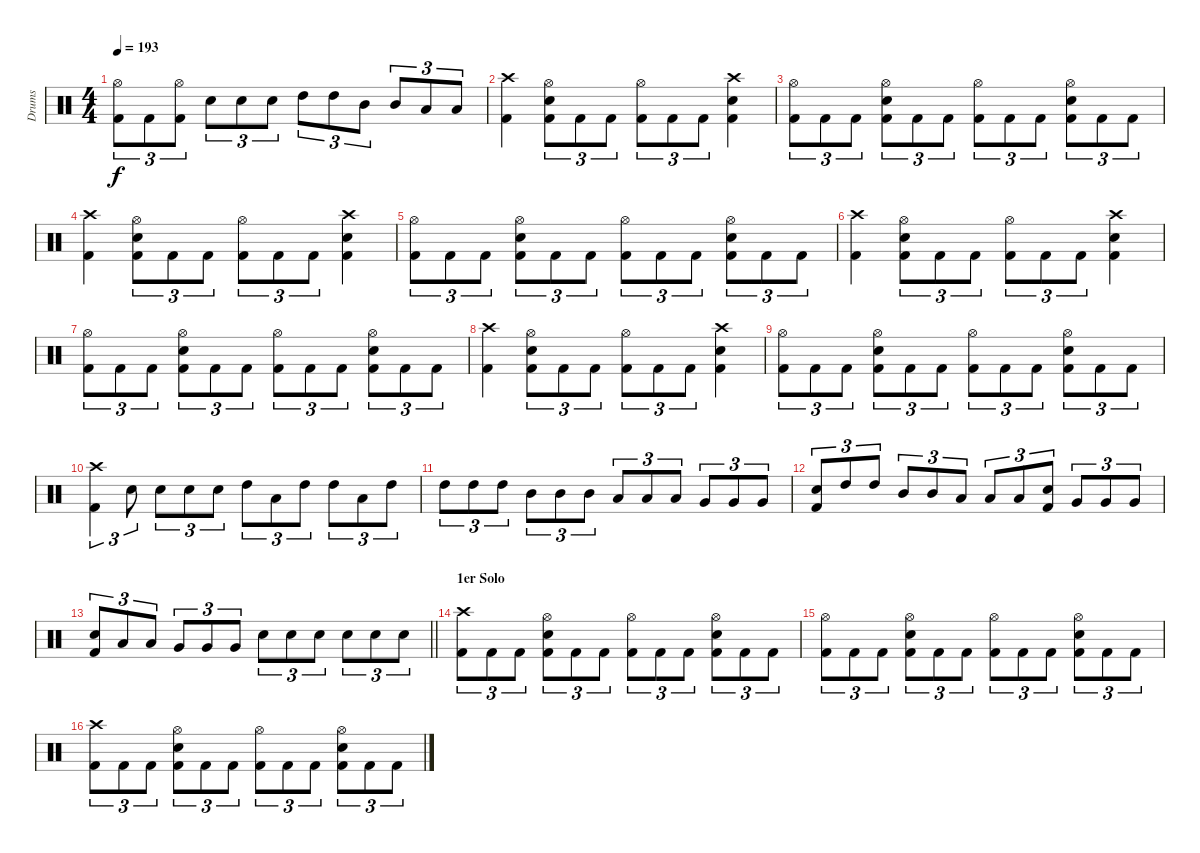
\track ("Drums" "Drums") {instrument percussion}
\staff {score}
\articulation defaults
\ts (4 4)
\tempo 193
\clef neutral
\ks c
("Hi-Hat (open)" "Kick (hit) 2").8{tu (3 2) dy f} "Kick (hit) 2".8{tu (3 2)} ("Hi-Hat (open)" "Kick (hit) 2").8{tu (3 2)} "Electric Snare (hit)".8{tu (3 2)} "Electric Snare (hit)".8{tu (3 2)} "Electric Snare (hit)".8{tu (3 2)} "High Tom (hit)".8{tu (3 2)} "High Tom (hit)".8{tu (3 2)} "Mid Tom (hit)".8{tu (3 2)} "Mid Tom (hit)".8{tu (3 2)} "Low Tom (hit)".8{tu (3 2)} "Low Tom (hit)".8{tu (3 2)} |
("Crash high (hit)" "Kick (hit) 2").4 ("Hi-Hat (open)" "Electric Snare (hit)" "Kick (hit) 2").8{tu (3 2)} "Kick (hit) 2".8{tu (3 2)} "Kick (hit) 2".8{tu (3 2)} ("Hi-Hat (open)" "Kick (hit) 2").8{tu (3 2)} "Kick (hit) 2".8{tu (3 2)} "Kick (hit) 2".8{tu (3 2)} ("Crash high (hit)" "Electric Snare (hit)" "Kick (hit) 2").4 |
("Hi-Hat (open)" "Kick (hit) 2").8{tu (3 2)} "Kick (hit) 2".8{tu (3 2)} "Kick (hit) 2".8{tu (3 2)} ("Hi-Hat (open)" "Electric Snare (hit)" "Kick (hit) 2").8{tu (3 2)} "Kick (hit) 2".8{tu (3 2)} "Kick (hit) 2".8{tu (3 2)} ("Hi-Hat (open)" "Kick (hit) 2").8{tu (3 2)} "Kick (hit) 2".8{tu (3 2)} "Kick (hit) 2".8{tu (3 2)} ("Hi-Hat (open)" "Electric Snare (hit)" "Kick (hit) 2").8{tu (3 2)} "Kick (hit) 2".8{tu (3 2)} "Kick (hit) 2".8{tu (3 2)} |
("Crash high (hit)" "Kick (hit) 2").4 ("Hi-Hat (open)" "Electric Snare (hit)" "Kick (hit) 2").8{tu (3 2)} "Kick (hit) 2".8{tu (3 2)} "Kick (hit) 2".8{tu (3 2)} ("Hi-Hat (open)" "Kick (hit) 2").8{tu (3 2)} "Kick (hit) 2".8{tu (3 2)} "Kick (hit) 2".8{tu (3 2)} ("Crash high (hit)" "Electric Snare (hit)" "Kick (hit) 2").4 |
("Hi-Hat (open)" "Kick (hit) 2").8{tu (3 2)} "Kick (hit) 2".8{tu (3 2)} "Kick (hit) 2".8{tu (3 2)} ("Hi-Hat (open)" "Electric Snare (hit)" "Kick (hit) 2").8{tu (3 2)} "Kick (hit) 2".8{tu (3 2)} "Kick (hit) 2".8{tu (3 2)} ("Hi-Hat (open)" "Kick (hit) 2").8{tu (3 2)} "Kick (hit) 2".8{tu (3 2)} "Kick (hit) 2".8{tu (3 2)} ("Hi-Hat (open)" "Electric Snare (hit)" "Kick (hit) 2").8{tu (3 2)} "Kick (hit) 2".8{tu (3 2)} "Kick (hit) 2".8{tu (3 2)} |
("Crash high (hit)" "Kick (hit) 2").4 ("Hi-Hat (open)" "Electric Snare (hit)" "Kick (hit) 2").8{tu (3 2)} "Kick (hit) 2".8{tu (3 2)} "Kick (hit) 2".8{tu (3 2)} ("Hi-Hat (open)" "Kick (hit) 2").8{tu (3 2)} "Kick (hit) 2".8{tu (3 2)} "Kick (hit) 2".8{tu (3 2)} ("Crash high (hit)" "Electric Snare (hit)" "Kick (hit) 2").4 |
("Hi-Hat (open)" "Kick (hit) 2").8{tu (3 2)} "Kick (hit) 2".8{tu (3 2)} "Kick (hit) 2".8{tu (3 2)} ("Hi-Hat (open)" "Electric Snare (hit)" "Kick (hit) 2").8{tu (3 2)} "Kick (hit) 2".8{tu (3 2)} "Kick (hit) 2".8{tu (3 2)} ("Hi-Hat (open)" "Kick (hit) 2").8{tu (3 2)} "Kick (hit) 2".8{tu (3 2)} "Kick (hit) 2".8{tu (3 2)} ("Hi-Hat (open)" "Electric Snare (hit)" "Kick (hit) 2").8{tu (3 2)} "Kick (hit) 2".8{tu (3 2)} "Kick (hit) 2".8{tu (3 2)} |
("Crash high (hit)" "Kick (hit) 2").4 ("Hi-Hat (open)" "Electric Snare (hit)" "Kick (hit) 2").8{tu (3 2)} "Kick (hit) 2".8{tu (3 2)} "Kick (hit) 2".8{tu (3 2)} ("Hi-Hat (open)" "Kick (hit) 2").8{tu (3 2)} "Kick (hit) 2".8{tu (3 2)} "Kick (hit) 2".8{tu (3 2)} ("Crash high (hit)" "Electric Snare (hit)" "Kick (hit) 2").4 |
("Hi-Hat (open)" "Kick (hit) 2").8{tu (3 2)} "Kick (hit) 2".8{tu (3 2)} "Kick (hit) 2".8{tu (3 2)} ("Hi-Hat (open)" "Electric Snare (hit)" "Kick (hit) 2").8{tu (3 2)} "Kick (hit) 2".8{tu (3 2)} "Kick (hit) 2".8{tu (3 2)} ("Hi-Hat (open)" "Kick (hit) 2").8{tu (3 2)} "Kick (hit) 2".8{tu (3 2)} "Kick (hit) 2".8{tu (3 2)} ("Hi-Hat (open)" "Electric Snare (hit)" "Kick (hit) 2").8{tu (3 2)} "Kick (hit) 2".8{tu (3 2)} "Kick (hit) 2".8{tu (3 2)} |
("Crash high (hit)" "Kick (hit) 2").4{tu (3 2)} "Electric Snare (hit)".8{tu (3 2)} "Electric Snare (hit)".8{tu (3 2)} "Electric Snare (hit)".8{tu (3 2)} "Electric Snare (hit)".8{tu (3 2)} "High Tom (hit)".8{tu (3 2)} "Low Tom (hit)".8{tu (3 2)} "High Tom (hit)".8{tu (3 2)} "High Tom (hit)".8{tu (3 2)} "Low Tom (hit)".8{tu (3 2)} "High Tom (hit)".8{tu (3 2)} |
"High Tom (hit)".8{tu (3 2)} "High Tom (hit)".8{tu (3 2)} "High Tom (hit)".8{tu (3 2)} "Mid Tom (hit)".8{tu (3 2)} "Mid Tom (hit)".8{tu (3 2)} "Mid Tom (hit)".8{tu (3 2)} "Low Tom (hit)".8{tu (3 2)} "Low Tom (hit)".8{tu (3 2)} "Low Tom (hit)".8{tu (3 2)} "Very Low Tom (hit)".8{tu (3 2)} "Very Low Tom (hit)".8{tu (3 2)} "Very Low Tom (hit)".8{tu (3 2)} |
("Electric Snare (hit)" "Kick (hit) 2").8{tu (3 2)} "High Tom (hit)".8{tu (3 2)} "High Tom (hit)".8{tu (3 2)} "Mid Tom (hit)".8{tu (3 2)} "Mid Tom (hit)".8{tu (3 2)} "Low Tom (hit)".8{tu (3 2)} "Low Tom (hit)".8{tu (3 2)} "Low Tom (hit)".8{tu (3 2)} ("Electric Snare (hit)" "Kick (hit) 2").8{tu (3 2)} "Very Low Tom (hit)".8{tu (3 2)} "Very Low Tom (hit)".8{tu (3 2)} "Very Low Tom (hit)".8{tu (3 2)} |
\barLineRight lightlight
("Electric Snare (hit)" "Kick (hit) 2").8{tu (3 2)} "Low Tom (hit)".8{tu (3 2)} "Low Tom (hit)".8{tu (3 2)} "Very Low Tom (hit)".8{tu (3 2)} "Very Low Tom (hit)".8{tu (3 2)} "Very Low Tom (hit)".8{tu (3 2)} "Electric Snare (hit)".8{tu (3 2)} "Electric Snare (hit)".8{tu (3 2)} "Electric Snare (hit)".8{tu (3 2)} "Electric Snare (hit)".8{tu (3 2)} "Electric Snare (hit)".8{tu (3 2)} "Electric Snare (hit)".8{tu (3 2)} |
\section ("" "1er Solo")
("Crash high (hit)" "Kick (hit) 2").8{tu (3 2)} "Kick (hit) 2".8{tu (3 2)} "Kick (hit) 2".8{tu (3 2)} ("Hi-Hat (open)" "Electric Snare (hit)" "Kick (hit) 2").8{tu (3 2)} "Kick (hit) 2".8{tu (3 2)} "Kick (hit) 2".8{tu (3 2)} ("Hi-Hat (open)" "Kick (hit) 2").8{tu (3 2)} "Kick (hit) 2".8{tu (3 2)} "Kick (hit) 2".8{tu (3 2)} ("Hi-Hat (open)" "Electric Snare (hit)" "Kick (hit) 2").8{tu (3 2)} "Kick (hit) 2".8{tu (3 2)} "Kick (hit) 2".8{tu (3 2)} |
("Hi-Hat (open)" "Kick (hit) 2").8{tu (3 2)} "Kick (hit) 2".8{tu (3 2)} "Kick (hit) 2".8{tu (3 2)} ("Hi-Hat (open)" "Electric Snare (hit)" "Kick (hit) 2").8{tu (3 2)} "Kick (hit) 2".8{tu (3 2)} "Kick (hit) 2".8{tu (3 2)} ("Hi-Hat (open)" "Kick (hit) 2").8{tu (3 2)} "Kick (hit) 2".8{tu (3 2)} "Kick (hit) 2".8{tu (3 2)} ("Hi-Hat (open)" "Electric Snare (hit)" "Kick (hit) 2").8{tu (3 2)} "Kick (hit) 2".8{tu (3 2)} "Kick (hit) 2".8{tu (3 2)} |
("Crash high (hit)" "Kick (hit) 2").8{tu (3 2)} "Kick (hit) 2".8{tu (3 2)} "Kick (hit) 2".8{tu (3 2)} ("Hi-Hat (open)" "Electric Snare (hit)" "Kick (hit) 2").8{tu (3 2)} "Kick (hit) 2".8{tu (3 2)} "Kick (hit) 2".8{tu (3 2)} ("Hi-Hat (open)" "Kick (hit) 2").8{tu (3 2)} "Kick (hit) 2".8{tu (3 2)} "Kick (hit) 2".8{tu (3 2)} ("Hi-Hat (open)" "Electric Snare (hit)" "Kick (hit) 2").8{tu (3 2)} "Kick (hit) 2".8{tu (3 2)} "Kick (hit) 2".8{tu (3 2)}
